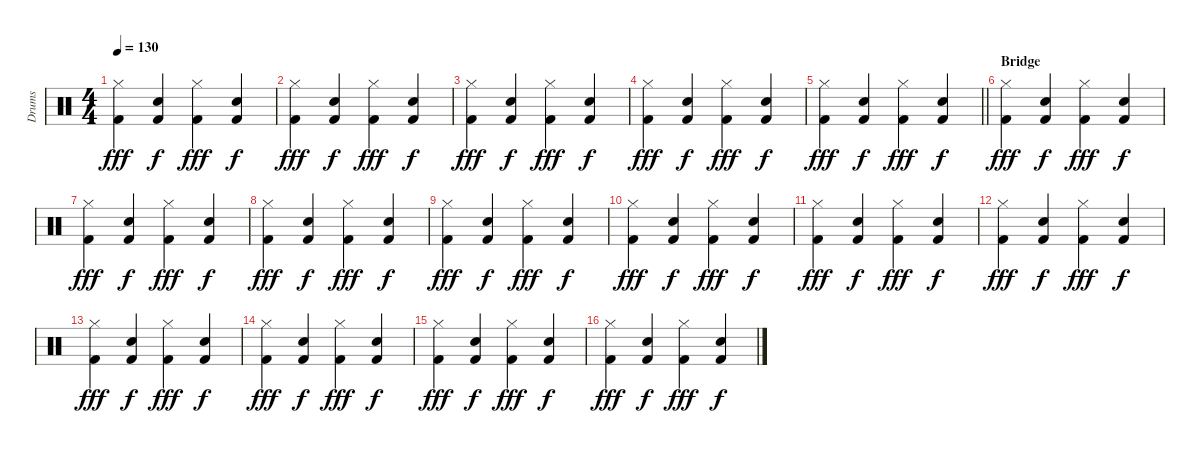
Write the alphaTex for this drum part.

\track ("Drums" "Drums") {instrument percussion}
\staff {score}
\articulation defaults
\ts (4 4)
\tempo 130
\clef neutral
\ks c
("Kick (hit) 2" "Hi-Hat (closed)").4{dy fff} ("Kick (hit) 2" "Snare (hit) 2").4{dy f} ("Kick (hit) 2" "Hi-Hat (closed)").4{dy fff} ("Kick (hit) 2" "Snare (hit) 2").4{dy f} |
("Kick (hit) 2" "Hi-Hat (closed)").4{dy fff} ("Kick (hit) 2" "Snare (hit) 2").4{dy f} ("Kick (hit) 2" "Hi-Hat (closed)").4{dy fff} ("Kick (hit) 2" "Snare (hit) 2").4{dy f} |
("Kick (hit) 2" "Hi-Hat (closed)").4{dy fff} ("Kick (hit) 2" "Snare (hit) 2").4{dy f} ("Kick (hit) 2" "Hi-Hat (closed)").4{dy fff} ("Kick (hit) 2" "Snare (hit) 2").4{dy f} |
("Kick (hit) 2" "Hi-Hat (closed)").4{dy fff} ("Kick (hit) 2" "Snare (hit) 2").4{dy f} ("Kick (hit) 2" "Hi-Hat (closed)").4{dy fff} ("Kick (hit) 2" "Snare (hit) 2").4{dy f} |
\barLineRight lightlight
("Kick (hit) 2" "Hi-Hat (closed)").4{dy fff} ("Kick (hit) 2" "Snare (hit) 2").4{dy f} ("Kick (hit) 2" "Hi-Hat (closed)").4{dy fff} ("Kick (hit) 2" "Snare (hit) 2").4{dy f} |
\section ("" "Bridge")
("Kick (hit) 2" "Hi-Hat (closed)").4{dy fff} ("Kick (hit) 2" "Snare (hit) 2").4{dy f} ("Kick (hit) 2" "Hi-Hat (closed)").4{dy fff} ("Kick (hit) 2" "Snare (hit) 2").4{dy f} |
("Kick (hit) 2" "Hi-Hat (closed)").4{dy fff} ("Kick (hit) 2" "Snare (hit) 2").4{dy f} ("Kick (hit) 2" "Hi-Hat (closed)").4{dy fff} ("Kick (hit) 2" "Snare (hit) 2").4{dy f} |
("Kick (hit) 2" "Hi-Hat (closed)").4{dy fff} ("Kick (hit) 2" "Snare (hit) 2").4{dy f} ("Kick (hit) 2" "Hi-Hat (closed)").4{dy fff} ("Kick (hit) 2" "Snare (hit) 2").4{dy f} |
("Kick (hit) 2" "Hi-Hat (closed)").4{dy fff} ("Kick (hit) 2" "Snare (hit) 2").4{dy f} ("Kick (hit) 2" "Hi-Hat (closed)").4{dy fff} ("Kick (hit) 2" "Snare (hit) 2").4{dy f} |
("Kick (hit) 2" "Hi-Hat (closed)").4{dy fff} ("Kick (hit) 2" "Snare (hit) 2").4{dy f} ("Kick (hit) 2" "Hi-Hat (closed)").4{dy fff} ("Kick (hit) 2" "Snare (hit) 2").4{dy f} |
("Kick (hit) 2" "Hi-Hat (closed)").4{dy fff} ("Kick (hit) 2" "Snare (hit) 2").4{dy f} ("Kick (hit) 2" "Hi-Hat (closed)").4{dy fff} ("Kick (hit) 2" "Snare (hit) 2").4{dy f} |
("Kick (hit) 2" "Hi-Hat (closed)").4{dy fff} ("Kick (hit) 2" "Snare (hit) 2").4{dy f} ("Kick (hit) 2" "Hi-Hat (closed)").4{dy fff} ("Kick (hit) 2" "Snare (hit) 2").4{dy f} |
("Kick (hit) 2" "Hi-Hat (closed)").4{dy fff} ("Kick (hit) 2" "Snare (hit) 2").4{dy f} ("Kick (hit) 2" "Hi-Hat (closed)").4{dy fff} ("Kick (hit) 2" "Snare (hit) 2").4{dy f} |
("Kick (hit) 2" "Hi-Hat (closed)").4{dy fff} ("Kick (hit) 2" "Snare (hit) 2").4{dy f} ("Kick (hit) 2" "Hi-Hat (closed)").4{dy fff} ("Kick (hit) 2" "Snare (hit) 2").4{dy f} |
("Kick (hit) 2" "Hi-Hat (closed)").4{dy fff} ("Kick (hit) 2" "Snare (hit) 2").4{dy f} ("Kick (hit) 2" "Hi-Hat (closed)").4{dy fff} ("Kick (hit) 2" "Snare (hit) 2").4{dy f} |
("Kick (hit) 2" "Hi-Hat (closed)").4{dy fff} ("Kick (hit) 2" "Snare (hit) 2").4{dy f} ("Kick (hit) 2" "Hi-Hat (closed)").4{dy fff} ("Kick (hit) 2" "Snare (hit) 2").4{dy f}
